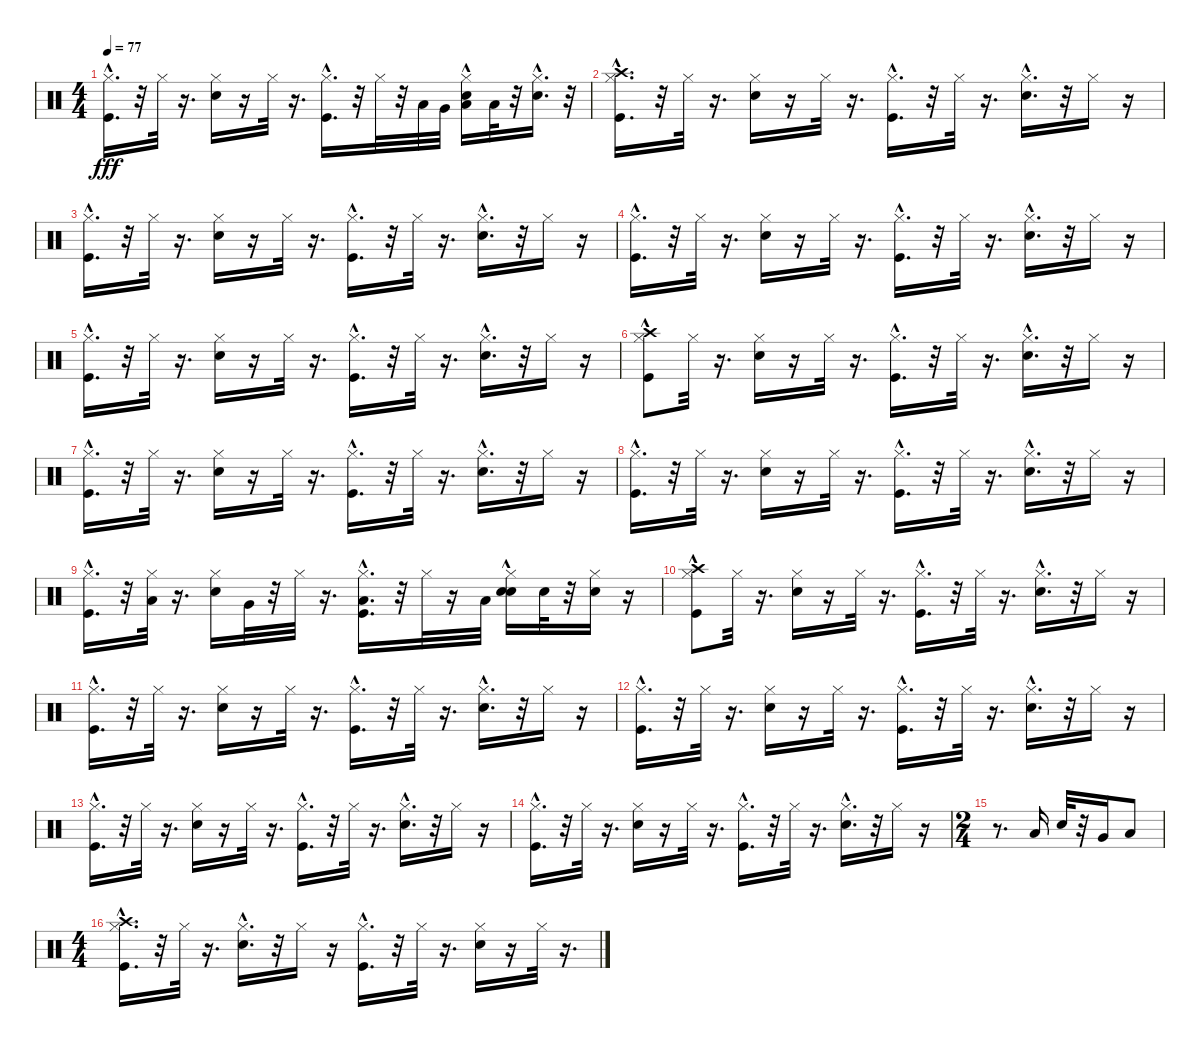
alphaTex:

\track "" {instrument percussion}
\staff {score}
\articulation defaults
\ts (4 4)
\tempo 77
\clef neutral
\ks c
("Kick (hit)"{hac} "Hi-Hat (closed)").16{d dy fff} r.32 "Hi-Hat (closed)".32 r.16{d} ("Snare (hit) 2" "Hi-Hat (closed)").16 r.16 "Hi-Hat (closed)".32 r.16{d} ("Kick (hit)"{hac} "Hi-Hat (closed)").16{d} r.32 "Hi-Hat (closed)".32 r.32 "Low Tom (hit)".32 "Very Low Tom (hit)".32 ("Low Floor Tom (hit)" "Snare (hit) 2"{hac} "Hi-Hat (closed)").16 "Low Floor Tom (hit)".32 r.32 ("Hi-Hat (closed)" "Electric Snare (hit)"{hac}).16{d} r.32 |
("Kick (hit)"{hac} "Hi-Hat (closed)" "Crash high (hit)"{hac}).16{d} r.32 "Hi-Hat (closed)".32 r.16{d} ("Snare (hit) 2" "Hi-Hat (closed)").16 r.16 "Hi-Hat (closed)".32 r.16{d} ("Kick (hit)"{hac} "Hi-Hat (closed)").16{d} r.32 "Hi-Hat (closed)".32 r.16{d} ("Snare (hit) 2"{hac} "Hi-Hat (closed)").16{d} r.32 "Hi-Hat (closed)".16 r.16 |
("Kick (hit)"{hac} "Hi-Hat (closed)").16{d} r.32 "Hi-Hat (closed)".32 r.16{d} ("Snare (hit) 2" "Hi-Hat (closed)").16 r.16 "Hi-Hat (closed)".32 r.16{d} ("Kick (hit)"{hac} "Hi-Hat (closed)").16{d} r.32 "Hi-Hat (closed)".32 r.16{d} ("Snare (hit) 2"{hac} "Hi-Hat (closed)").16{d} r.32 "Hi-Hat (closed)".16 r.16 |
("Kick (hit)"{hac} "Hi-Hat (closed)").16{d} r.32 "Hi-Hat (closed)".32 r.16{d} ("Snare (hit) 2" "Hi-Hat (closed)").16 r.16 "Hi-Hat (closed)".32 r.16{d} ("Kick (hit)"{hac} "Hi-Hat (closed)").16{d} r.32 "Hi-Hat (closed)".32 r.16{d} ("Snare (hit) 2"{hac} "Hi-Hat (closed)").16{d} r.32 "Hi-Hat (closed)".16 r.16 |
("Kick (hit)"{hac} "Hi-Hat (closed)").16{d} r.32 "Hi-Hat (closed)".32 r.16{d} ("Snare (hit) 2" "Hi-Hat (closed)").16 r.16 "Hi-Hat (closed)".32 r.16{d} ("Kick (hit)"{hac} "Hi-Hat (closed)").16{d} r.32 "Hi-Hat (closed)".32 r.16{d} ("Snare (hit) 2"{hac} "Hi-Hat (closed)").16{d} r.32 "Hi-Hat (closed)".16 r.16 |
("Crash high (hit)" "Kick (hit)"{hac} "Hi-Hat (closed)").8 "Hi-Hat (closed)".32 r.16{d} ("Snare (hit) 2" "Hi-Hat (closed)").16 r.16 "Hi-Hat (closed)".32 r.16{d} ("Kick (hit)"{hac} "Hi-Hat (closed)").16{d} r.32 "Hi-Hat (closed)".32 r.16{d} ("Snare (hit) 2"{hac} "Hi-Hat (closed)").16{d} r.32 "Hi-Hat (closed)".16 r.16 |
("Kick (hit)"{hac} "Hi-Hat (closed)").16{d} r.32 "Hi-Hat (closed)".32 r.16{d} ("Snare (hit) 2" "Hi-Hat (closed)").16 r.16 "Hi-Hat (closed)".32 r.16{d} ("Kick (hit)"{hac} "Hi-Hat (closed)").16{d} r.32 "Hi-Hat (closed)".32 r.16{d} ("Snare (hit) 2"{hac} "Hi-Hat (closed)").16{d} r.32 "Hi-Hat (closed)".16 r.16 |
("Kick (hit)"{hac} "Hi-Hat (closed)").16{d} r.32 "Hi-Hat (closed)".32 r.16{d} ("Snare (hit) 2" "Hi-Hat (closed)").16 r.16 "Hi-Hat (closed)".32 r.16{d} ("Kick (hit)"{hac} "Hi-Hat (closed)").16{d} r.32 "Hi-Hat (closed)".32 r.16{d} ("Snare (hit) 2"{hac} "Hi-Hat (closed)").16{d} r.32 "Hi-Hat (closed)".16 r.16 |
("Kick (hit)"{hac} "Hi-Hat (closed)").16{d} r.32 ("Low Floor Tom (hit)" "Hi-Hat (closed)").32 r.16{d} ("Snare (hit) 2" "Hi-Hat (closed)").16 "Very Low Tom (hit)".32 r.32 "Hi-Hat (closed)".32 r.16{d} ("Low Tom (hit)" "Kick (hit)"{hac} "Hi-Hat (closed)").16{d} r.32 "Hi-Hat (closed)".32 r.16 "Low Floor Tom (hit)".32 ("Electric Snare (hit)" "Snare (hit) 2"{hac} "Hi-Hat (closed)").16 "Electric Snare (hit)".32 r.32 ("Electric Snare (hit)" "Hi-Hat (closed)").16 r.16 |
("Crash high (hit)" "Kick (hit)"{hac} "Hi-Hat (closed)").8 "Hi-Hat (closed)".32 r.16{d} ("Snare (hit) 2" "Hi-Hat (closed)").16 r.16 "Hi-Hat (closed)".32 r.16{d} ("Kick (hit)"{hac} "Hi-Hat (closed)").16{d} r.32 "Hi-Hat (closed)".32 r.16{d} ("Snare (hit) 2"{hac} "Hi-Hat (closed)").16{d} r.32 "Hi-Hat (closed)".16 r.16 |
("Kick (hit)"{hac} "Hi-Hat (closed)").16{d} r.32 "Hi-Hat (closed)".32 r.16{d} ("Snare (hit) 2" "Hi-Hat (closed)").16 r.16 "Hi-Hat (closed)".32 r.16{d} ("Kick (hit)"{hac} "Hi-Hat (closed)").16{d} r.32 "Hi-Hat (closed)".32 r.16{d} ("Snare (hit) 2"{hac} "Hi-Hat (closed)").16{d} r.32 "Hi-Hat (closed)".16 r.16 |
("Kick (hit)"{hac} "Hi-Hat (closed)").16{d} r.32 "Hi-Hat (closed)".32 r.16{d} ("Snare (hit) 2" "Hi-Hat (closed)").16 r.16 "Hi-Hat (closed)".32 r.16{d} ("Kick (hit)"{hac} "Hi-Hat (closed)").16{d} r.32 "Hi-Hat (closed)".32 r.16{d} ("Snare (hit) 2"{hac} "Hi-Hat (closed)").16{d} r.32 "Hi-Hat (closed)".16 r.16 |
("Kick (hit)"{hac} "Hi-Hat (closed)").16{d} r.32 "Hi-Hat (closed)".32 r.16{d} ("Snare (hit) 2" "Hi-Hat (closed)").16 r.16 "Hi-Hat (closed)".32 r.16{d} ("Kick (hit)"{hac} "Hi-Hat (closed)").16{d} r.32 "Hi-Hat (closed)".32 r.16{d} ("Snare (hit) 2"{hac} "Hi-Hat (closed)").16{d} r.32 "Hi-Hat (closed)".16 r.16 |
("Kick (hit)"{hac} "Hi-Hat (closed)").16{d} r.32 "Hi-Hat (closed)".32 r.16{d} ("Snare (hit) 2" "Hi-Hat (closed)").16 r.16 "Hi-Hat (closed)".32 r.16{d} ("Kick (hit)"{hac} "Hi-Hat (closed)").16{d} r.32 "Hi-Hat (closed)".32 r.16{d} ("Snare (hit) 2"{hac} "Hi-Hat (closed)").16{d} r.32 "Hi-Hat (closed)".16 r.16 |
\ts (2 4)
r.8{d} "Low Floor Tom (hit)".16 "Electric Snare (hit)".32 r.32 "Very Low Tom (hit)".16 "Low Floor Tom (hit)".8 |
\ts (4 4)
("Kick (hit)"{hac} "Hi-Hat (closed)" "Crash high (hit)").16{d} r.32 "Hi-Hat (closed)".32 r.16{d} ("Snare (hit) 2"{hac} "Hi-Hat (closed)").16{d} r.32 "Hi-Hat (closed)".16 r.16 ("Kick (hit)"{hac} "Hi-Hat (closed)").16{d} r.32 "Hi-Hat (closed)".32 r.16{d} ("Snare (hit) 2" "Hi-Hat (closed)").16 r.16 "Hi-Hat (closed)".32 r.16{d}
